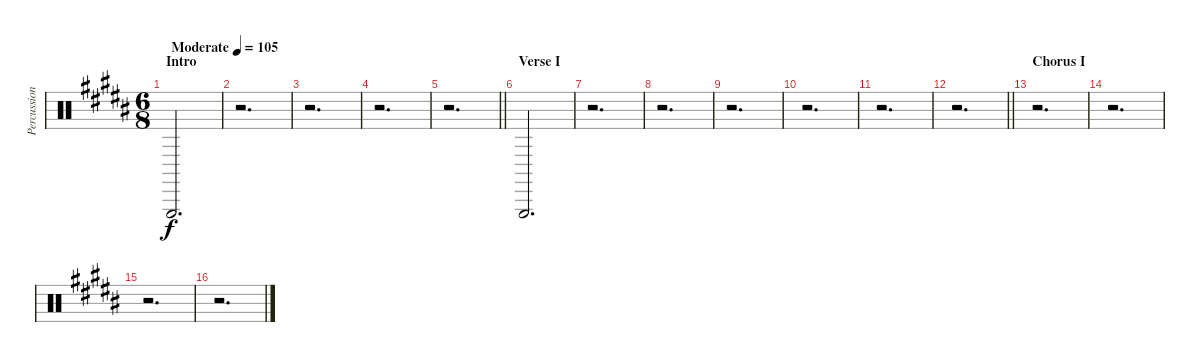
\track ("Percussion" "Percussion") {instrument percussion}
\staff {score}
\articulation defaults
\ts (6 8)
\section ("" "Intro")
\tempo (105 "Moderate")
\clef neutral
\ks b "Triangle (hit)".2{d dy f}
|
r.2{d} |
r.2{d} |
r.2{d} |
\barLineRight lightlight
r.2{d} |
\section ("" "Verse I")
"Triangle (hit)".2{d} |
r.2{d} |
r.2{d} |
r.2{d} |
r.2{d} |
r.2{d} |
\barLineRight lightlight
r.2{d} |
\section ("" "Chorus I")
r.2{d} |
r.2{d} |
r.2{d} |
r.2{d}
